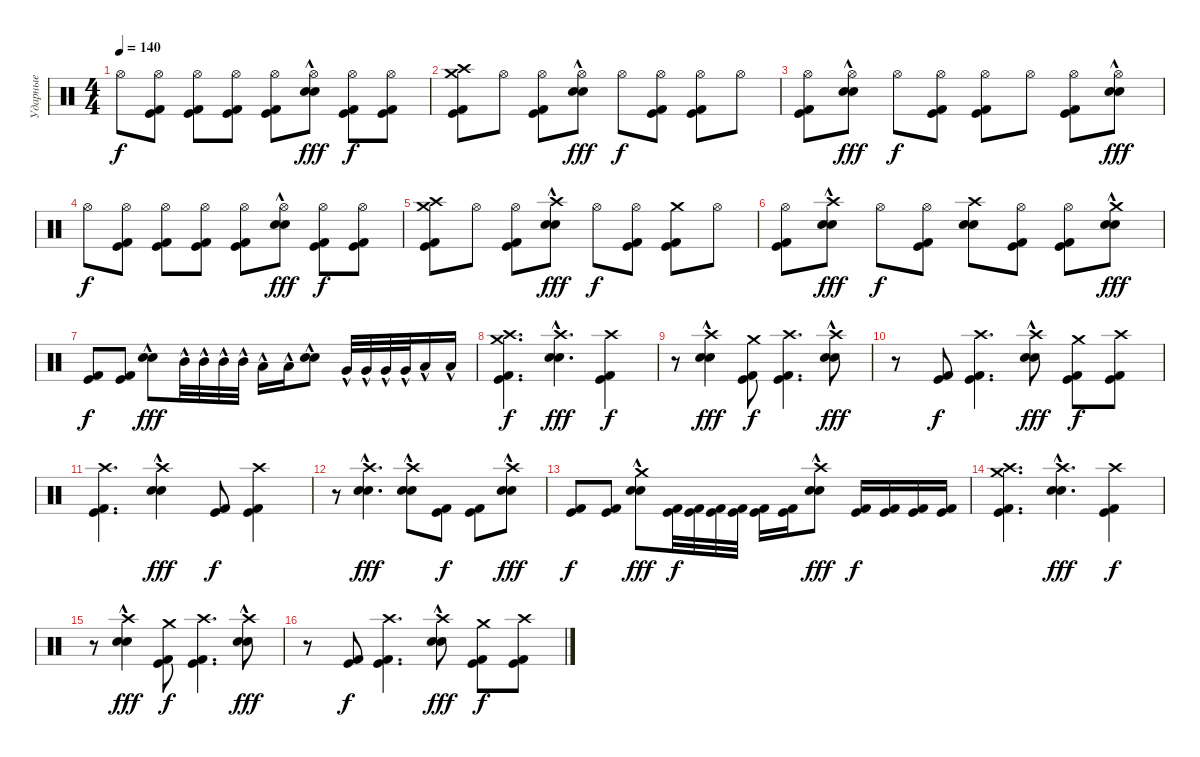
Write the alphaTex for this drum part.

\track ("Ударные" "Ударные") {instrument percussion}
\staff {score}
\articulation defaults
\ts (4 4)
\tempo 140
\clef neutral
\ks c "Hi-Hat (open)".8{dy f}
("Hi-Hat (open)" "Kick (hit)" "Kick (hit) 2").8 ("Hi-Hat (open)" "Kick (hit)" "Kick (hit) 2").8 ("Hi-Hat (open)" "Kick (hit)" "Kick (hit) 2").8 ("Hi-Hat (open)" "Kick (hit)" "Kick (hit) 2").8 ("Hi-Hat (open)" "Snare (hit) 2"{hac} "Electric Snare (hit)"{hac}).8{dy fff} ("Hi-Hat (open)" "Kick (hit)" "Kick (hit) 2").8{dy f} ("Hi-Hat (open)" "Kick (hit)" "Kick (hit) 2").8 |
("Crash high (hit)" "Kick (hit)" "Kick (hit) 2" "Crash medium (hit)").8 "Hi-Hat (open)".8 ("Hi-Hat (open)" "Kick (hit)" "Kick (hit) 2").8 ("Hi-Hat (open)" "Snare (hit) 2"{hac} "Electric Snare (hit)"{hac}).8{dy fff} "Hi-Hat (open)".8{dy f} ("Hi-Hat (open)" "Kick (hit)" "Kick (hit) 2").8 ("Hi-Hat (open)" "Kick (hit)" "Kick (hit) 2").8 "Hi-Hat (open)".8 |
("Hi-Hat (open)" "Kick (hit)" "Kick (hit) 2").8 ("Hi-Hat (open)" "Snare (hit) 2"{hac} "Electric Snare (hit)"{hac}).8{dy fff} "Hi-Hat (open)".8{dy f} ("Hi-Hat (open)" "Kick (hit)" "Kick (hit) 2").8 ("Hi-Hat (open)" "Kick (hit)" "Kick (hit) 2").8 "Hi-Hat (open)".8 ("Hi-Hat (open)" "Kick (hit)" "Kick (hit) 2").8 ("Hi-Hat (open)" "Snare (hit) 2"{hac} "Electric Snare (hit)"{hac}).8{dy fff} |
"Hi-Hat (open)".8{dy f} ("Hi-Hat (open)" "Kick (hit)" "Kick (hit) 2").8 ("Hi-Hat (open)" "Kick (hit)" "Kick (hit) 2").8 ("Hi-Hat (open)" "Kick (hit)" "Kick (hit) 2").8 ("Hi-Hat (open)" "Kick (hit)" "Kick (hit) 2").8 ("Hi-Hat (open)" "Snare (hit) 2"{hac} "Electric Snare (hit)"{hac}).8{dy fff} ("Hi-Hat (open)" "Kick (hit)" "Kick (hit) 2").8{dy f} ("Hi-Hat (open)" "Kick (hit)" "Kick (hit) 2").8 |
("Crash high (hit)" "Kick (hit)" "Kick (hit) 2" "Crash medium (hit)").8 "Hi-Hat (open)".8 ("Hi-Hat (open)" "Kick (hit)" "Kick (hit) 2").8 ("Crash high (hit)" "Snare (hit) 2"{hac} "Electric Snare (hit)"{hac}).8{dy fff} "Hi-Hat (open)".8{dy f} ("Hi-Hat (open)" "Kick (hit)" "Kick (hit) 2").8 ("Crash medium (hit)" "Kick (hit)" "Kick (hit) 2").8 "Hi-Hat (open)".8 |
("Hi-Hat (open)" "Kick (hit)" "Kick (hit) 2").8 ("Crash high (hit)" "Snare (hit) 2"{hac} "Electric Snare (hit)"{hac}).8{dy fff} "Hi-Hat (open)".8{dy f} ("Hi-Hat (open)" "Kick (hit)" "Kick (hit) 2").8 ("Crash high (hit)" "Snare (hit) 2" "Electric Snare (hit)").8 ("Hi-Hat (open)" "Kick (hit)" "Kick (hit) 2").8 ("Hi-Hat (open)" "Kick (hit)" "Kick (hit) 2").8 ("Crash medium (hit)" "Snare (hit) 2"{hac} "Electric Snare (hit)"{hac}).8{dy fff} |
("Kick (hit)" "Kick (hit) 2").8{dy f} ("Kick (hit)" "Kick (hit) 2").8 ("Snare (hit) 2"{hac} "Electric Snare (hit)"{hac}).8{dy fff} "Mid Tom (hit)"{hac}.32 "Mid Tom (hit)"{hac}.32 "Mid Tom (hit)"{hac}.32 "Mid Tom (hit)"{hac}.32 "Low Tom (hit)"{hac}.16 "Low Tom (hit)"{hac}.16 ("Snare (hit) 2"{hac} "Electric Snare (hit)"{hac}).8 "Very Low Tom (hit)"{hac}.32 "Very Low Tom (hit)"{hac}.32 "Very Low Tom (hit)"{hac}.32 "Very Low Tom (hit)"{hac}.32 "Low Floor Tom (hit)"{hac}.16 "Low Floor Tom (hit)"{hac}.16 |
("Crash high (hit)" "Kick (hit)" "Kick (hit) 2" "Crash medium (hit)").4{d dy f} ("Crash high (hit)" "Snare (hit) 2"{hac} "Electric Snare (hit)"{hac}).4{d dy fff} ("Crash high (hit)" "Kick (hit)" "Kick (hit) 2").4{dy f} |
r.8 ("Crash high (hit)" "Snare (hit) 2"{hac} "Electric Snare (hit)"{hac}).4{dy fff} ("Crash medium (hit)" "Kick (hit)" "Kick (hit) 2").8{dy f} ("Crash high (hit)" "Kick (hit)" "Kick (hit) 2").4{d} ("Crash high (hit)" "Snare (hit) 2"{hac} "Electric Snare (hit)"{hac}).8{dy fff} |
r.8 ("Kick (hit)" "Kick (hit) 2").8{dy f} ("Crash high (hit)" "Kick (hit)" "Kick (hit) 2").4{d} ("Crash high (hit)" "Snare (hit) 2"{hac} "Electric Snare (hit)"{hac}).8{dy fff} ("Crash medium (hit)" "Kick (hit)" "Kick (hit) 2").8{dy f} ("Crash high (hit)" "Kick (hit)" "Kick (hit) 2").8 |
("Crash high (hit)" "Kick (hit)" "Kick (hit) 2").4{d} ("Crash high (hit)" "Snare (hit) 2"{hac} "Electric Snare (hit)"{hac}).4{dy fff} ("Kick (hit)" "Kick (hit) 2").8{dy f} ("Crash high (hit)" "Kick (hit)" "Kick (hit) 2").4 |
r.8 ("Crash high (hit)" "Snare (hit) 2"{hac} "Electric Snare (hit)"{hac}).4{d dy fff} ("Crash high (hit)" "Snare (hit) 2"{hac} "Electric Snare (hit)"{hac}).8 ("Kick (hit)" "Kick (hit) 2").8{dy f} ("Kick (hit)" "Kick (hit) 2").8 ("Crash high (hit)" "Snare (hit) 2"{hac} "Electric Snare (hit)"{hac}).8{dy fff} |
("Kick (hit)" "Kick (hit) 2").8{dy f} ("Kick (hit)" "Kick (hit) 2").8 ("Crash medium (hit)" "Snare (hit) 2"{hac} "Electric Snare (hit)"{hac}).8{dy fff} ("Kick (hit)" "Kick (hit) 2").32{dy f} ("Kick (hit)" "Kick (hit) 2").32 ("Kick (hit)" "Kick (hit) 2").32 ("Kick (hit)" "Kick (hit) 2").32 ("Kick (hit)" "Kick (hit) 2").16 ("Kick (hit)" "Kick (hit) 2").16 ("Crash high (hit)" "Snare (hit) 2"{hac} "Electric Snare (hit)"{hac}).8{dy fff} ("Kick (hit)" "Kick (hit) 2").16{dy f} ("Kick (hit)" "Kick (hit) 2").16 ("Kick (hit)" "Kick (hit) 2").16 ("Kick (hit)" "Kick (hit) 2").16 |
("Crash high (hit)" "Kick (hit)" "Kick (hit) 2" "Crash medium (hit)").4{d} ("Crash high (hit)" "Snare (hit) 2"{hac} "Electric Snare (hit)"{hac}).4{d dy fff} ("Crash high (hit)" "Kick (hit)" "Kick (hit) 2").4{dy f} |
r.8 ("Crash high (hit)" "Snare (hit) 2"{hac} "Electric Snare (hit)"{hac}).4{dy fff} ("Crash medium (hit)" "Kick (hit)" "Kick (hit) 2").8{dy f} ("Crash high (hit)" "Kick (hit)" "Kick (hit) 2").4{d} ("Crash high (hit)" "Snare (hit) 2"{hac} "Electric Snare (hit)"{hac}).8{dy fff} |
r.8 ("Kick (hit)" "Kick (hit) 2").8{dy f} ("Crash high (hit)" "Kick (hit)" "Kick (hit) 2").4{d} ("Crash high (hit)" "Snare (hit) 2"{hac} "Electric Snare (hit)"{hac}).8{dy fff} ("Crash medium (hit)" "Kick (hit)" "Kick (hit) 2").8{dy f} ("Crash high (hit)" "Kick (hit)" "Kick (hit) 2").8
